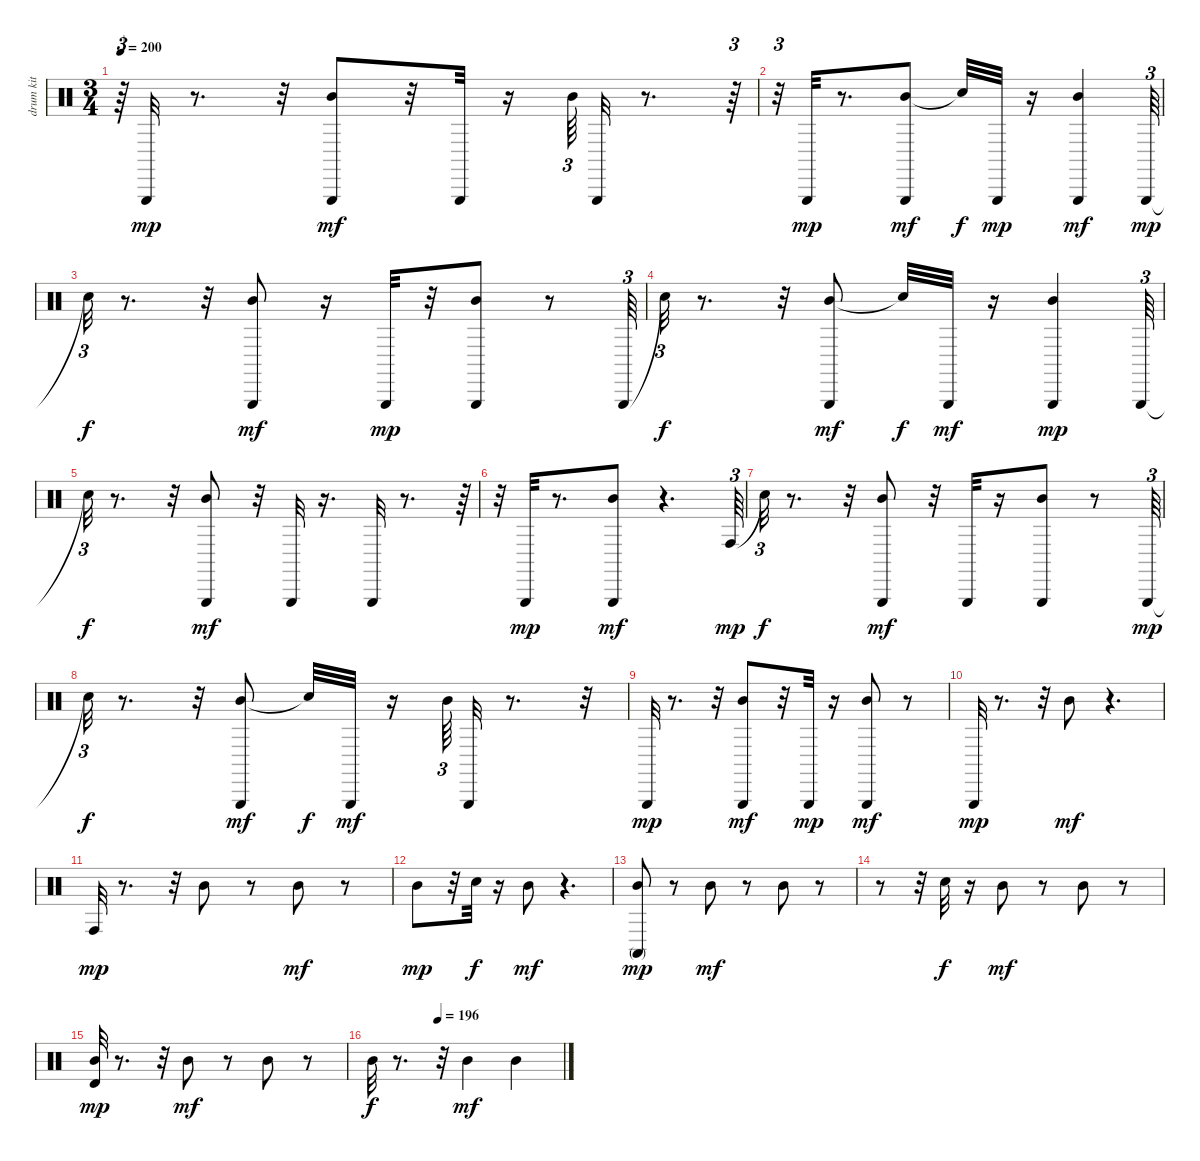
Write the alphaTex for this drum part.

\track (" drum kit (hi-hat/cymbals)" " drum kit ") {instrument percussion}
\staff {score}
\articulation defaults
\ts (3 4)
\tempo 200
\clef neutral
\ks c
r.64{tu (3 2) dy mf} "Triangle (hit)".32{dy mp} r.8{d} r.32 ("Mid Tom (hit)" "Triangle (hit)").8{dy mf} r.32 "Triangle (hit)".32 r.16 "Mid Tom (hit)".64{tu (3 2)} "Triangle (hit)".32 r.8{d} r.64{tu (3 2)} |
r.32{tu (3 2)} "Triangle (hit)".32{dy mp} r.8{d} ("Mid Tom (hit)" "Triangle (hit)").8{dy mf} "Snare (hit)"{t}.32{dy f} "Triangle (hit)".32{dy mp} r.16 ("Mid Tom (hit)" "Triangle (hit)").4{dy mf} "Triangle (hit)".64{tu (3 2) dy mp} |
"Snare (hit)"{t}.32{tu (3 2) dy f} r.8{d} r.32 ("Mid Tom (hit)" "Triangle (hit)").8{dy mf} r.16 "Triangle (hit)".32{dy mp} r.32 ("Mid Tom (hit)" "Triangle (hit)").8 r.8 "Triangle (hit)".64{tu (3 2)} |
"Snare (hit)"{t}.32{tu (3 2) dy f} r.8{d} r.32 ("Mid Tom (hit)" "Triangle (hit)").8{dy mf} "Snare (hit)"{t}.32{dy f} "Triangle (hit)".32{dy mf} r.16 ("Mid Tom (hit)" "Triangle (hit)").4{dy mp} "Triangle (hit)".64{tu (3 2)} |
"Snare (hit)"{t}.32{tu (3 2) dy f} r.8{d} r.32 ("Mid Tom (hit)" "Triangle (hit)").8{dy mf} r.32 "Triangle (hit)".32 r.16{d} "Triangle (hit)".32 r.8{d} r.64{tu (3 2)} |
r.32{tu (3 2)} "Triangle (hit)".32{dy mp} r.8{d} ("Mid Tom (hit)" "Triangle (hit)").8{dy mf} r.4{d} "Conga high (hit)".64{tu (3 2) dy mp} |
"Snare (hit)"{t}.32{tu (3 2) dy f} r.8{d} r.32 ("Mid Tom (hit)" "Triangle (hit)").8{dy mf} r.32 "Triangle (hit)".32 r.16 ("Mid Tom (hit)" "Triangle (hit)").8 r.8 "Triangle (hit)".64{tu (3 2) dy mp} |
"Snare (hit)"{t}.32{tu (3 2) dy f} r.8{d} r.32 ("Mid Tom (hit)" "Triangle (hit)").8{dy mf} "Snare (hit)"{t}.32{dy f} "Triangle (hit)".32{dy mf} r.16 "Mid Tom (hit)".64{tu (3 2)} "Triangle (hit)".32 r.8{d} r.32 |
"Triangle (hit)".32{dy mp} r.8{d} r.32 ("Mid Tom (hit)" "Triangle (hit)").8{dy mf} r.32 "Triangle (hit)".32{dy mp} r.16 ("Mid Tom (hit)" "Triangle (hit)").8{dy mf} r.8 |
"Triangle (hit)".32{dy mp} r.8{d} r.32 "Mid Tom (hit)".8{dy mf} r.4{d} |
"Conga high (hit)".32{dy mp} r.8{d} r.32 "Mid Tom (hit)".8 r.8 "Mid Tom (hit)".8{dy mf} r.8 |
"Mid Tom (hit)".8{dy mp} r.32 "Snare (hit)".32{dy f} r.16 "Mid Tom (hit)".8{dy mf} r.4{d} |
("Mid Tom (hit)" "Conga high (mute)").8{dy mp} r.8 "Mid Tom (hit)".8{dy mf} r.8 "Mid Tom (hit)".8 r.8 |
r.8 r.32 "Snare (hit)".32{dy f} r.16 "Mid Tom (hit)".8{dy mf} r.8 "Mid Tom (hit)".8 r.8 |
("Mid Tom (hit)" "Timbale high (hit)").32{dy mp} r.8{d} r.32 "Mid Tom (hit)".8{dy mf} r.8 "Mid Tom (hit)".8 r.8 |
\tempo (196 0.3472222222222222)
"Mid Tom (hit)".32{dy f} r.8{d} r.32 "Mid Tom (hit)".4{dy mf} "Mid Tom (hit)".4
